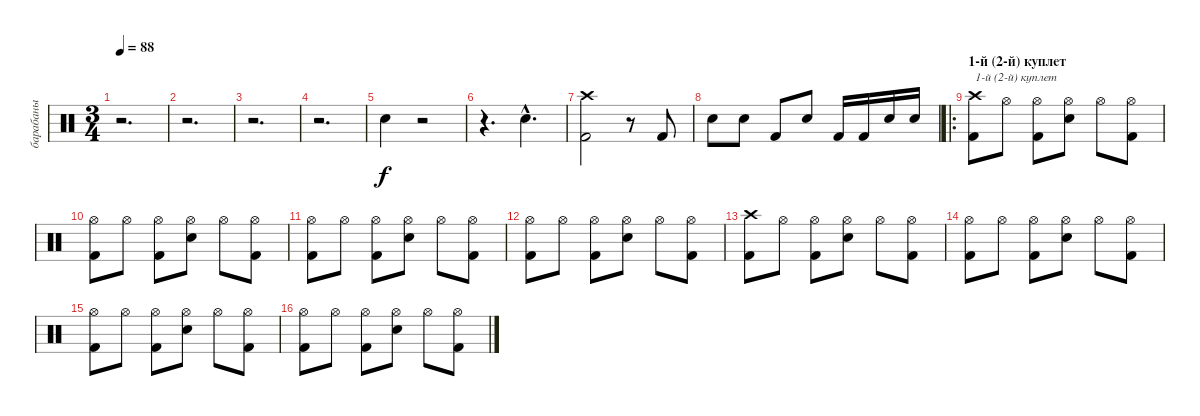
\track ("барабаны" "барабаны") {instrument percussion}
\staff {score}
\articulation defaults
\ts (3 4)
\tempo 88
\clef neutral
\ks c
r.2{d dy f} |
r.2{d} |
r.2{d} |
r.2{d} |
"Snare (hit) 2".4 r.2 |
r.4{d} "Snare (hit) 2"{hac}.4{d} |
("Crash high (hit)" "Kick (hit) 2").2 r.8 "Kick (hit) 2".8 |
"Snare (hit) 2".8 "Snare (hit) 2".8 "Kick (hit) 2".8 "Snare (hit) 2".8 "Kick (hit) 2".16 "Kick (hit) 2".16 "Snare (hit) 2".16 "Snare (hit) 2".16 |
\ro
\section ("" "1-й (2-й) куплет")
("Crash high (hit)" "Kick (hit) 2").8{txt "1-й (2-й) куплет"} "Hi-Hat (open)".8 ("Hi-Hat (open)" "Kick (hit) 2").8 ("Hi-Hat (open)" "Snare (hit) 2").8 "Hi-Hat (open)".8 ("Hi-Hat (open)" "Kick (hit) 2").8 |
("Hi-Hat (open)" "Kick (hit) 2").8 "Hi-Hat (open)".8 ("Hi-Hat (open)" "Kick (hit) 2").8 ("Hi-Hat (open)" "Snare (hit) 2").8 "Hi-Hat (open)".8 ("Hi-Hat (open)" "Kick (hit) 2").8 |
("Hi-Hat (open)" "Kick (hit) 2").8 "Hi-Hat (open)".8 ("Hi-Hat (open)" "Kick (hit) 2").8 ("Hi-Hat (open)" "Snare (hit) 2").8 "Hi-Hat (open)".8 ("Hi-Hat (open)" "Kick (hit) 2").8 |
("Hi-Hat (open)" "Kick (hit) 2").8 "Hi-Hat (open)".8 ("Hi-Hat (open)" "Kick (hit) 2").8 ("Hi-Hat (open)" "Snare (hit) 2").8 "Hi-Hat (open)".8 ("Hi-Hat (open)" "Kick (hit) 2").8 |
("Crash high (hit)" "Kick (hit) 2").8 "Hi-Hat (open)".8 ("Hi-Hat (open)" "Kick (hit) 2").8 ("Hi-Hat (open)" "Snare (hit) 2").8 "Hi-Hat (open)".8 ("Hi-Hat (open)" "Kick (hit) 2").8 |
("Hi-Hat (open)" "Kick (hit) 2").8 "Hi-Hat (open)".8 ("Hi-Hat (open)" "Kick (hit) 2").8 ("Hi-Hat (open)" "Snare (hit) 2").8 "Hi-Hat (open)".8 ("Hi-Hat (open)" "Kick (hit) 2").8 |
("Hi-Hat (open)" "Kick (hit) 2").8 "Hi-Hat (open)".8 ("Hi-Hat (open)" "Kick (hit) 2").8 ("Hi-Hat (open)" "Snare (hit) 2").8 "Hi-Hat (open)".8 ("Hi-Hat (open)" "Kick (hit) 2").8 |
("Hi-Hat (open)" "Kick (hit) 2").8 "Hi-Hat (open)".8 ("Hi-Hat (open)" "Kick (hit) 2").8 ("Hi-Hat (open)" "Snare (hit) 2").8 "Hi-Hat (open)".8 ("Hi-Hat (open)" "Kick (hit) 2").8
